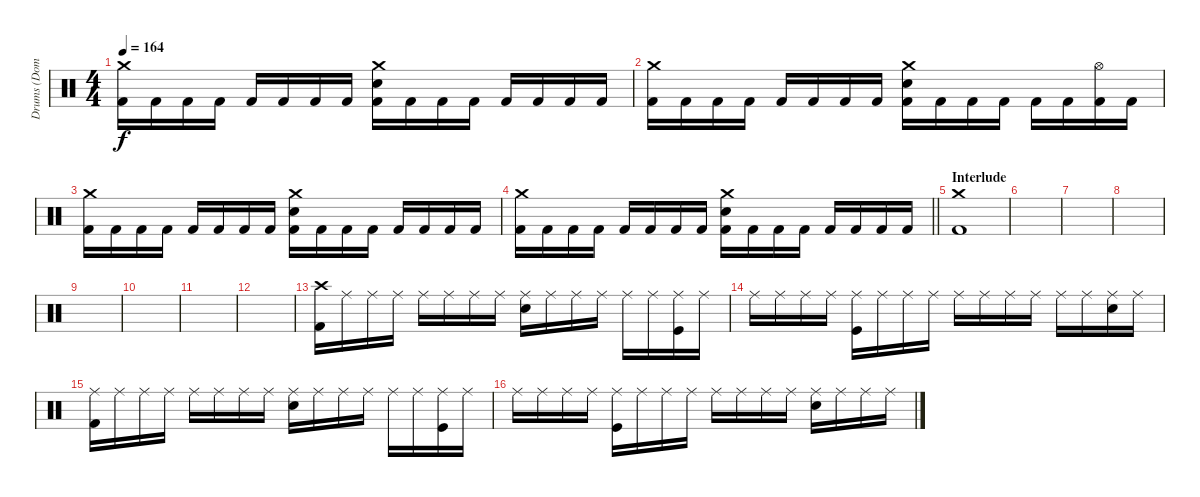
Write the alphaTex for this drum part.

\track ("Drums (Dominik)" "Drums (Dom") {instrument percussion}
\staff {score}
\articulation defaults
\ts (4 4)
\tempo 164
\clef neutral
\ks c
("Crash medium (hit)" "Kick (hit) 2").16{dy f} "Kick (hit) 2".16 "Kick (hit) 2".16 "Kick (hit) 2".16 "Kick (hit) 2".16 "Kick (hit) 2".16 "Kick (hit) 2".16 "Kick (hit) 2".16 ("Crash medium (hit)" "Electric Snare (hit)" "Kick (hit) 2").16 "Kick (hit) 2".16 "Kick (hit) 2".16 "Kick (hit) 2".16 "Kick (hit) 2".16 "Kick (hit) 2".16 "Kick (hit) 2".16 "Kick (hit) 2".16 |
("Crash medium (hit)" "Kick (hit) 2").16 "Kick (hit) 2".16 "Kick (hit) 2".16 "Kick (hit) 2".16 "Kick (hit) 2".16 "Kick (hit) 2".16 "Kick (hit) 2".16 "Kick (hit) 2".16 ("Crash medium (hit)" "Electric Snare (hit)" "Kick (hit) 2").16 "Kick (hit) 2".16 "Kick (hit) 2".16 "Kick (hit) 2".16 "Kick (hit) 2".16 "Kick (hit) 2".16 ("Hi-Hat (open)" "Kick (hit) 2").16 "Kick (hit) 2".16 |
("Crash medium (hit)" "Kick (hit) 2").16 "Kick (hit) 2".16 "Kick (hit) 2".16 "Kick (hit) 2".16 "Kick (hit) 2".16 "Kick (hit) 2".16 "Kick (hit) 2".16 "Kick (hit) 2".16 ("Crash medium (hit)" "Electric Snare (hit)" "Kick (hit) 2").16 "Kick (hit) 2".16 "Kick (hit) 2".16 "Kick (hit) 2".16 "Kick (hit) 2".16 "Kick (hit) 2".16 "Kick (hit) 2".16 "Kick (hit) 2".16 |
\barLineRight lightlight
("Crash medium (hit)" "Kick (hit) 2").16 "Kick (hit) 2".16 "Kick (hit) 2".16 "Kick (hit) 2".16 "Kick (hit) 2".16 "Kick (hit) 2".16 "Kick (hit) 2".16 "Kick (hit) 2".16 ("Crash medium (hit)" "Electric Snare (hit)" "Kick (hit) 2").16 "Kick (hit) 2".16 "Kick (hit) 2".16 "Kick (hit) 2".16 "Kick (hit) 2".16 "Kick (hit) 2".16 "Kick (hit) 2".16 "Kick (hit) 2".16 |
\section ("" "Interlude")
("Crash medium (hit)" "Kick (hit) 2").1 |
|
|
|
|
|
|
|
("Crash high (hit)" "Kick (hit) 2").16 "Ride (middle)".16 "Ride (middle)".16 "Ride (middle)".16 "Ride (middle)".16 "Ride (middle)".16 "Ride (middle)".16 "Ride (middle)".16 ("Ride (middle)" "Snare (hit) 2").16 "Ride (middle)".16 "Ride (middle)".16 "Ride (middle)".16 "Ride (middle)".16 "Ride (middle)".16 ("Ride (middle)" "Kick (hit)").16 "Ride (middle)".16 |
"Ride (middle)".16 "Ride (middle)".16 "Ride (middle)".16 "Ride (middle)".16 ("Ride (middle)" "Kick (hit)").16 "Ride (middle)".16 "Ride (middle)".16 "Ride (middle)".16 "Ride (middle)".16 "Ride (middle)".16 "Ride (middle)".16 "Ride (middle)".16 "Ride (middle)".16 "Ride (middle)".16 ("Ride (middle)" "Snare (hit) 2").16 "Ride (middle)".16 |
("Ride (middle)" "Kick (hit) 2").16 "Ride (middle)".16 "Ride (middle)".16 "Ride (middle)".16 "Ride (middle)".16 "Ride (middle)".16 "Ride (middle)".16 "Ride (middle)".16 ("Ride (middle)" "Snare (hit) 2").16 "Ride (middle)".16 "Ride (middle)".16 "Ride (middle)".16 "Ride (middle)".16 "Ride (middle)".16 ("Ride (middle)" "Kick (hit)").16 "Ride (middle)".16 |
"Ride (middle)".16 "Ride (middle)".16 "Ride (middle)".16 "Ride (middle)".16 ("Ride (middle)" "Kick (hit)").16 "Ride (middle)".16 "Ride (middle)".16 "Ride (middle)".16 "Ride (middle)".16 "Ride (middle)".16 "Ride (middle)".16 "Ride (middle)".16 ("Ride (middle)" "Snare (hit) 2").16 "Ride (middle)".16 "Ride (middle)".16 "Ride (middle)".16
